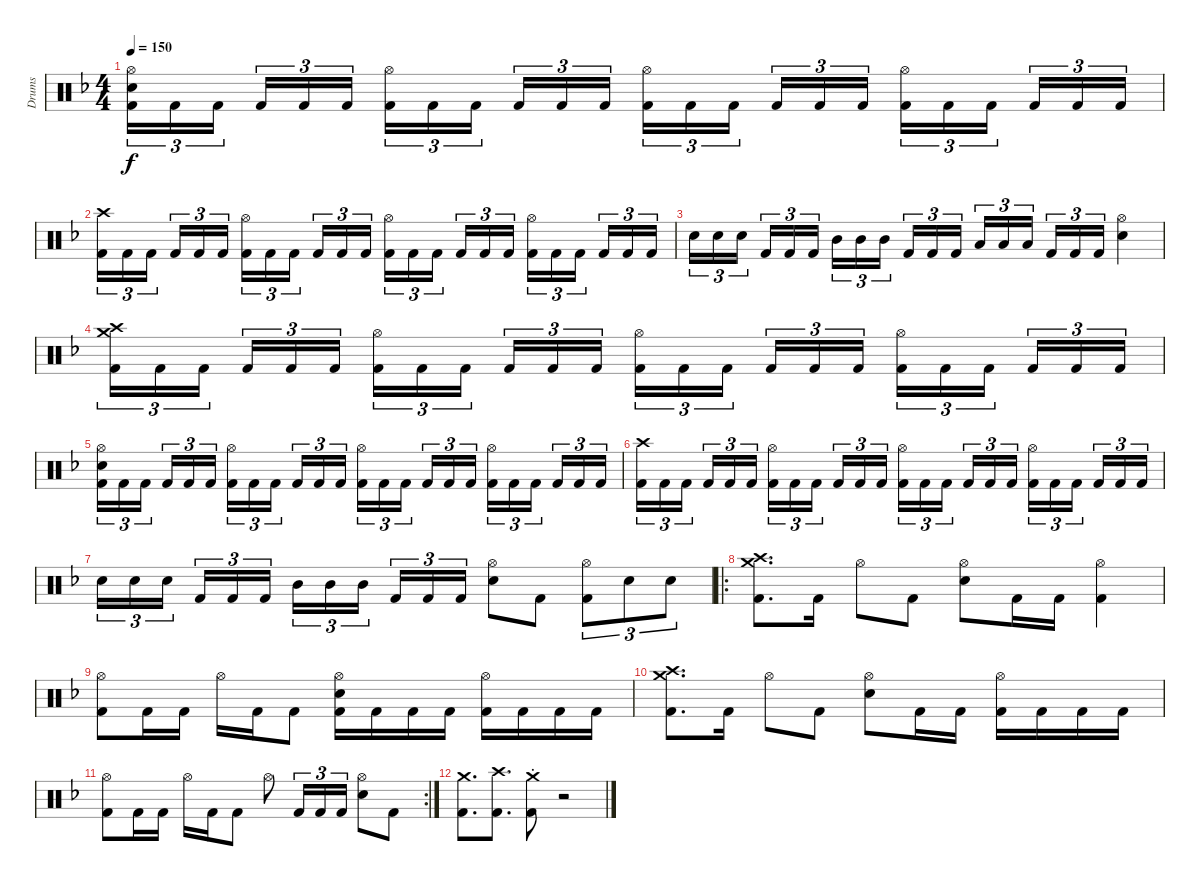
\track ("Drums" "Drums") {instrument percussion}
\staff {score}
\articulation defaults
\ts (4 4)
\tempo 150
\clef neutral
\ks dminor
("Hi-Hat (open)" "Electric Snare (hit)" "Kick (hit) 2").16{tu (3 2) dy f} "Kick (hit) 2".16{tu (3 2)} "Kick (hit) 2".16{tu (3 2) beam splitsecondary} "Kick (hit) 2".16{tu (3 2)} "Kick (hit) 2".16{tu (3 2)} "Kick (hit) 2".16{tu (3 2)} ("Hi-Hat (open)" "Kick (hit) 2").16{tu (3 2)} "Kick (hit) 2".16{tu (3 2)} "Kick (hit) 2".16{tu (3 2) beam splitsecondary} "Kick (hit) 2".16{tu (3 2)} "Kick (hit) 2".16{tu (3 2)} "Kick (hit) 2".16{tu (3 2)} ("Hi-Hat (open)" "Kick (hit) 2").16{tu (3 2)} "Kick (hit) 2".16{tu (3 2)} "Kick (hit) 2".16{tu (3 2) beam splitsecondary} "Kick (hit) 2".16{tu (3 2)} "Kick (hit) 2".16{tu (3 2)} "Kick (hit) 2".16{tu (3 2)} ("Hi-Hat (open)" "Kick (hit) 2").16{tu (3 2)} "Kick (hit) 2".16{tu (3 2)} "Kick (hit) 2".16{tu (3 2) beam splitsecondary} "Kick (hit) 2".16{tu (3 2)} "Kick (hit) 2".16{tu (3 2)} "Kick (hit) 2".16{tu (3 2)} |
("Crash high (hit)" "Kick (hit) 2").16{tu (3 2)} "Kick (hit) 2".16{tu (3 2)} "Kick (hit) 2".16{tu (3 2) beam splitsecondary} "Kick (hit) 2".16{tu (3 2)} "Kick (hit) 2".16{tu (3 2)} "Kick (hit) 2".16{tu (3 2)} ("Hi-Hat (open)" "Kick (hit) 2").16{tu (3 2)} "Kick (hit) 2".16{tu (3 2)} "Kick (hit) 2".16{tu (3 2) beam splitsecondary} "Kick (hit) 2".16{tu (3 2)} "Kick (hit) 2".16{tu (3 2)} "Kick (hit) 2".16{tu (3 2)} ("Hi-Hat (open)" "Kick (hit) 2").16{tu (3 2)} "Kick (hit) 2".16{tu (3 2)} "Kick (hit) 2".16{tu (3 2) beam splitsecondary} "Kick (hit) 2".16{tu (3 2)} "Kick (hit) 2".16{tu (3 2)} "Kick (hit) 2".16{tu (3 2)} ("Hi-Hat (open)" "Kick (hit) 2").16{tu (3 2)} "Kick (hit) 2".16{tu (3 2)} "Kick (hit) 2".16{tu (3 2) beam splitsecondary} "Kick (hit) 2".16{tu (3 2)} "Kick (hit) 2".16{tu (3 2)} "Kick (hit) 2".16{tu (3 2)} |
"Electric Snare (hit)".16{tu (3 2)} "Electric Snare (hit)".16{tu (3 2)} "Electric Snare (hit)".16{tu (3 2) beam splitsecondary} "Kick (hit) 2".16{tu (3 2)} "Kick (hit) 2".16{tu (3 2)} "Kick (hit) 2".16{tu (3 2)} "Mid Tom (hit)".16{tu (3 2)} "Mid Tom (hit)".16{tu (3 2)} "Mid Tom (hit)".16{tu (3 2) beam splitsecondary} "Kick (hit) 2".16{tu (3 2)} "Kick (hit) 2".16{tu (3 2)} "Kick (hit) 2".16{tu (3 2)} "Low Tom (hit)".16{tu (3 2)} "Low Tom (hit)".16{tu (3 2)} "Low Tom (hit)".16{tu (3 2) beam splitsecondary} "Kick (hit) 2".16{tu (3 2)} "Kick (hit) 2".16{tu (3 2)} "Kick (hit) 2".16{tu (3 2)} ("Hi-Hat (open)" "Electric Snare (hit)").4 |
("Crash medium (hit)" "Crash high (hit)" "Kick (hit) 2").16{tu (3 2)} "Kick (hit) 2".16{tu (3 2)} "Kick (hit) 2".16{tu (3 2) beam splitsecondary} "Kick (hit) 2".16{tu (3 2)} "Kick (hit) 2".16{tu (3 2)} "Kick (hit) 2".16{tu (3 2)} ("Hi-Hat (open)" "Kick (hit) 2").16{tu (3 2)} "Kick (hit) 2".16{tu (3 2)} "Kick (hit) 2".16{tu (3 2) beam splitsecondary} "Kick (hit) 2".16{tu (3 2)} "Kick (hit) 2".16{tu (3 2)} "Kick (hit) 2".16{tu (3 2)} ("Hi-Hat (open)" "Kick (hit) 2").16{tu (3 2)} "Kick (hit) 2".16{tu (3 2)} "Kick (hit) 2".16{tu (3 2) beam splitsecondary} "Kick (hit) 2".16{tu (3 2)} "Kick (hit) 2".16{tu (3 2)} "Kick (hit) 2".16{tu (3 2)} ("Hi-Hat (open)" "Kick (hit) 2").16{tu (3 2)} "Kick (hit) 2".16{tu (3 2)} "Kick (hit) 2".16{tu (3 2) beam splitsecondary} "Kick (hit) 2".16{tu (3 2)} "Kick (hit) 2".16{tu (3 2)} "Kick (hit) 2".16{tu (3 2)} |
("Hi-Hat (open)" "Electric Snare (hit)" "Kick (hit) 2").16{tu (3 2)} "Kick (hit) 2".16{tu (3 2)} "Kick (hit) 2".16{tu (3 2) beam splitsecondary} "Kick (hit) 2".16{tu (3 2)} "Kick (hit) 2".16{tu (3 2)} "Kick (hit) 2".16{tu (3 2)} ("Hi-Hat (open)" "Kick (hit) 2").16{tu (3 2)} "Kick (hit) 2".16{tu (3 2)} "Kick (hit) 2".16{tu (3 2) beam splitsecondary} "Kick (hit) 2".16{tu (3 2)} "Kick (hit) 2".16{tu (3 2)} "Kick (hit) 2".16{tu (3 2)} ("Hi-Hat (open)" "Kick (hit) 2").16{tu (3 2)} "Kick (hit) 2".16{tu (3 2)} "Kick (hit) 2".16{tu (3 2) beam splitsecondary} "Kick (hit) 2".16{tu (3 2)} "Kick (hit) 2".16{tu (3 2)} "Kick (hit) 2".16{tu (3 2)} ("Hi-Hat (open)" "Kick (hit) 2").16{tu (3 2)} "Kick (hit) 2".16{tu (3 2)} "Kick (hit) 2".16{tu (3 2) beam splitsecondary} "Kick (hit) 2".16{tu (3 2)} "Kick (hit) 2".16{tu (3 2)} "Kick (hit) 2".16{tu (3 2)} |
("Crash high (hit)" "Kick (hit) 2").16{tu (3 2)} "Kick (hit) 2".16{tu (3 2)} "Kick (hit) 2".16{tu (3 2) beam splitsecondary} "Kick (hit) 2".16{tu (3 2)} "Kick (hit) 2".16{tu (3 2)} "Kick (hit) 2".16{tu (3 2)} ("Hi-Hat (open)" "Kick (hit) 2").16{tu (3 2)} "Kick (hit) 2".16{tu (3 2)} "Kick (hit) 2".16{tu (3 2) beam splitsecondary} "Kick (hit) 2".16{tu (3 2)} "Kick (hit) 2".16{tu (3 2)} "Kick (hit) 2".16{tu (3 2)} ("Hi-Hat (open)" "Kick (hit) 2").16{tu (3 2)} "Kick (hit) 2".16{tu (3 2)} "Kick (hit) 2".16{tu (3 2) beam splitsecondary} "Kick (hit) 2".16{tu (3 2)} "Kick (hit) 2".16{tu (3 2)} "Kick (hit) 2".16{tu (3 2)} ("Hi-Hat (open)" "Kick (hit) 2").16{tu (3 2)} "Kick (hit) 2".16{tu (3 2)} "Kick (hit) 2".16{tu (3 2) beam splitsecondary} "Kick (hit) 2".16{tu (3 2)} "Kick (hit) 2".16{tu (3 2)} "Kick (hit) 2".16{tu (3 2)} |
"Electric Snare (hit)".16{tu (3 2)} "Electric Snare (hit)".16{tu (3 2)} "Electric Snare (hit)".16{tu (3 2) beam splitsecondary} "Kick (hit) 2".16{tu (3 2)} "Kick (hit) 2".16{tu (3 2)} "Kick (hit) 2".16{tu (3 2)} "Mid Tom (hit)".16{tu (3 2)} "Mid Tom (hit)".16{tu (3 2)} "Mid Tom (hit)".16{tu (3 2) beam splitsecondary} "Kick (hit) 2".16{tu (3 2)} "Kick (hit) 2".16{tu (3 2)} "Kick (hit) 2".16{tu (3 2)} ("Hi-Hat (open)" "Electric Snare (hit)").8 "Kick (hit) 2".8 ("Hi-Hat (open)" "Kick (hit) 2").8{tu (3 2)} "Electric Snare (hit)".8{tu (3 2)} "Electric Snare (hit)".8{tu (3 2)} |
\ro
("Crash medium (hit)" "Crash high (hit)" "Kick (hit) 2").8{d} "Kick (hit) 2".16 "Hi-Hat (open)".8 "Kick (hit) 2".8 ("Hi-Hat (open)" "Electric Snare (hit)").8 "Kick (hit) 2".16 "Kick (hit) 2".16 ("Hi-Hat (open)" "Kick (hit) 2").4 |
("Hi-Hat (open)" "Kick (hit) 2").8 "Kick (hit) 2".16 "Kick (hit) 2".16 "Hi-Hat (open)".16 "Kick (hit) 2".16 "Kick (hit) 2".8 ("Hi-Hat (open)" "Electric Snare (hit)" "Kick (hit) 2").16 "Kick (hit) 2".16 "Kick (hit) 2".16 "Kick (hit) 2".16 ("Hi-Hat (open)" "Kick (hit) 2").16 "Kick (hit) 2".16 "Kick (hit) 2".16 "Kick (hit) 2".16 |
("Crash medium (hit)" "Crash high (hit)" "Kick (hit) 2").8{d} "Kick (hit) 2".16 "Hi-Hat (open)".8 "Kick (hit) 2".8 ("Hi-Hat (open)" "Electric Snare (hit)").8 "Kick (hit) 2".16 "Kick (hit) 2".16 ("Hi-Hat (open)" "Kick (hit) 2").16 "Kick (hit) 2".16 "Kick (hit) 2".16 "Kick (hit) 2".16 |
\rc 2
("Hi-Hat (open)" "Kick (hit) 2").8 "Kick (hit) 2".16 "Kick (hit) 2".16 "Hi-Hat (open)".16 "Kick (hit) 2".16 "Kick (hit) 2".8 "Hi-Hat (open)".8 "Kick (hit) 2".16{tu (3 2)} "Kick (hit) 2".16{tu (3 2)} "Kick (hit) 2".16{tu (3 2)} ("Hi-Hat (open)" "Electric Snare (hit)").8 "Kick (hit) 2".8 |
("Crash medium (hit)" "Kick (hit) 2").8{d} ("Crash high (hit)" "Kick (hit) 2").8{d} ("Crash medium (hit)"{st} "Kick (hit) 2").8 r.2{volume 0}
